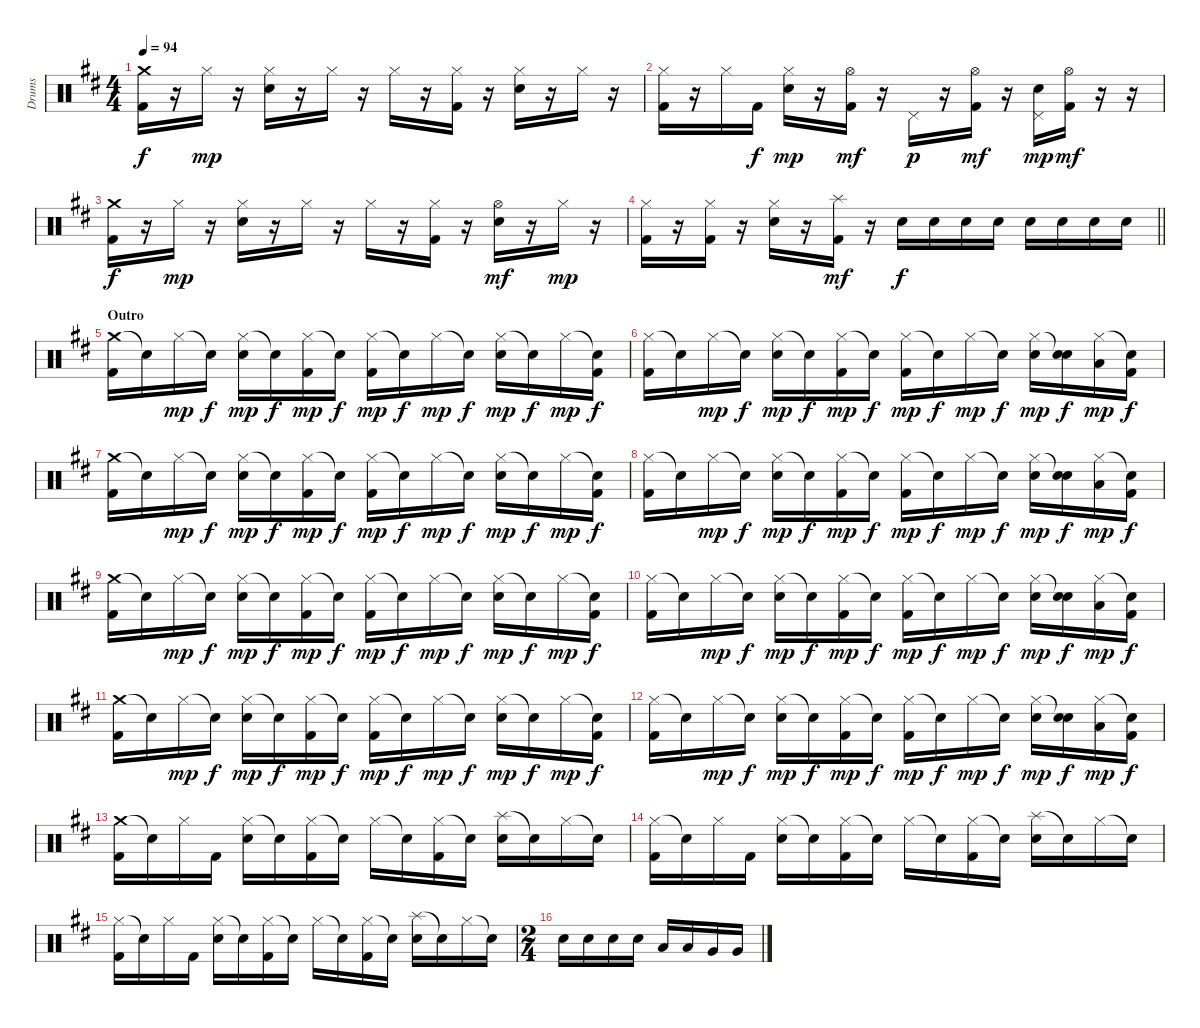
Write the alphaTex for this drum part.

\track ("Drums" "Drums") {instrument percussion}
\staff {score}
\articulation defaults
\ts (4 4)
\tempo 94
\clef neutral
\ks d
("Crash medium (hit)" "Kick (hit) 2").16{dy f} r.16 "Hi-Hat (closed)".16{dy mp} r.16 ("Hi-Hat (closed)" "Snare (hit) 2").16 r.16 "Hi-Hat (closed)".16 r.16 "Hi-Hat (closed)".16 r.16 ("Hi-Hat (closed)" "Kick (hit) 2").16 r.16 ("Hi-Hat (closed)" "Snare (hit) 2").16 r.16 "Hi-Hat (closed)".16 r.16 |
("Hi-Hat (closed)" "Kick (hit) 2").16 r.16 "Hi-Hat (closed)".16 "Kick (hit) 2".16{dy f} ("Hi-Hat (closed)" "Snare (hit) 2").16{dy mp} r.16 ("Hi-Hat (open)" "Kick (hit) 2").16{dy mf} r.16 "Pedal Hi-Hat (hit)".16{dy p} r.16 ("Hi-Hat (open)" "Kick (hit) 2").16{dy mf} r.16 ("Pedal Hi-Hat (hit)" "Snare (hit) 2").16{dy mp} ("Hi-Hat (open)" "Kick (hit) 2").16{dy mf} r.16 r.16 |
("Crash medium (hit)" "Kick (hit) 2").16{dy f} r.16 "Hi-Hat (closed)".16{dy mp} r.16 ("Hi-Hat (closed)" "Snare (hit) 2").16 r.16 "Hi-Hat (closed)".16 r.16 "Hi-Hat (closed)".16 r.16 ("Hi-Hat (closed)" "Kick (hit) 2").16 r.16 ("Hi-Hat (open)" "Snare (hit) 2").16{dy mf} r.16 "Hi-Hat (closed)".16{dy mp} r.16 |
\barLineRight lightlight
("Hi-Hat (closed)" "Kick (hit) 2").16 r.16 ("Hi-Hat (closed)" "Kick (hit) 2").16 r.16 ("Hi-Hat (closed)" "Snare (hit) 2").16 r.16 ("Splash (hit)" "Kick (hit) 2").16{dy mf} r.16 "Snare (hit) 2".16{dy f} "Snare (hit) 2".16 "Snare (hit) 2".16 "Snare (hit) 2".16 "Snare (hit) 2".16 "Snare (hit) 2".16 "Snare (hit) 2".16 "Snare (hit) 2".16 |
\section ("" "Outro")
("Crash medium (hit)" "Kick (hit) 2").16 "Snare (hit)"{t}.16 "Hi-Hat (closed)".16{dy mp} "Snare (hit)"{t}.16{dy f} ("Hi-Hat (closed)" "Snare (hit) 2").16{dy mp} "Snare (hit)"{t}.16{dy f} ("Hi-Hat (closed)" "Kick (hit) 2").16{dy mp} "Snare (hit)"{t}.16{dy f} ("Hi-Hat (closed)" "Kick (hit) 2").16{dy mp} "Snare (hit)"{t}.16{dy f} "Hi-Hat (closed)".16{dy mp} "Snare (hit)"{t}.16{dy f} ("Hi-Hat (closed)" "Snare (hit) 2").16{dy mp} "Snare (hit)"{t}.16{dy f} "Hi-Hat (closed)".16{dy mp} ("Snare (hit)"{t} "Kick (hit) 2").16{dy f} |
("Hi-Hat (closed)" "Kick (hit) 2").16 "Snare (hit)"{t}.16 "Hi-Hat (closed)".16{dy mp} "Snare (hit)"{t}.16{dy f} ("Hi-Hat (closed)" "Snare (hit) 2").16{dy mp} "Snare (hit)"{t}.16{dy f} ("Hi-Hat (closed)" "Kick (hit) 2").16{dy mp} "Snare (hit)"{t}.16{dy f} ("Hi-Hat (closed)" "Kick (hit) 2").16{dy mp} "Snare (hit)"{t}.16{dy f} "Hi-Hat (closed)".16{dy mp} "Snare (hit)"{t}.16{dy f} ("Hi-Hat (closed)" "Snare (hit) 2").16{dy mp} ("Snare (hit)"{t} "Snare (hit) 2").16{dy f} ("Hi-Hat (closed)" "Low Floor Tom (hit)").16{dy mp} ("Snare (hit)"{t} "Kick (hit) 2").16{dy f} |
("Crash medium (hit)" "Kick (hit) 2").16 "Snare (hit)"{t}.16 "Hi-Hat (closed)".16{dy mp} "Snare (hit)"{t}.16{dy f} ("Hi-Hat (closed)" "Snare (hit) 2").16{dy mp} "Snare (hit)"{t}.16{dy f} ("Hi-Hat (closed)" "Kick (hit) 2").16{dy mp} "Snare (hit)"{t}.16{dy f} ("Hi-Hat (closed)" "Kick (hit) 2").16{dy mp} "Snare (hit)"{t}.16{dy f} "Hi-Hat (closed)".16{dy mp} "Snare (hit)"{t}.16{dy f} ("Hi-Hat (closed)" "Snare (hit) 2").16{dy mp} "Snare (hit)"{t}.16{dy f} "Hi-Hat (closed)".16{dy mp} ("Snare (hit)"{t} "Kick (hit) 2").16{dy f} |
("Hi-Hat (closed)" "Kick (hit) 2").16 "Snare (hit)"{t}.16 "Hi-Hat (closed)".16{dy mp} "Snare (hit)"{t}.16{dy f} ("Hi-Hat (closed)" "Snare (hit) 2").16{dy mp} "Snare (hit)"{t}.16{dy f} ("Hi-Hat (closed)" "Kick (hit) 2").16{dy mp} "Snare (hit)"{t}.16{dy f} ("Hi-Hat (closed)" "Kick (hit) 2").16{dy mp} "Snare (hit)"{t}.16{dy f} "Hi-Hat (closed)".16{dy mp} "Snare (hit)"{t}.16{dy f} ("Hi-Hat (closed)" "Snare (hit) 2").16{dy mp} ("Snare (hit)"{t} "Snare (hit) 2").16{dy f} ("Hi-Hat (closed)" "Low Floor Tom (hit)").16{dy mp} ("Snare (hit)"{t} "Kick (hit) 2").16{dy f} |
("Crash medium (hit)" "Kick (hit) 2").16 "Snare (hit)"{t}.16 "Hi-Hat (closed)".16{dy mp} "Snare (hit)"{t}.16{dy f} ("Hi-Hat (closed)" "Snare (hit) 2").16{dy mp} "Snare (hit)"{t}.16{dy f} ("Hi-Hat (closed)" "Kick (hit) 2").16{dy mp} "Snare (hit)"{t}.16{dy f} ("Hi-Hat (closed)" "Kick (hit) 2").16{dy mp} "Snare (hit)"{t}.16{dy f} "Hi-Hat (closed)".16{dy mp} "Snare (hit)"{t}.16{dy f} ("Hi-Hat (closed)" "Snare (hit) 2").16{dy mp} "Snare (hit)"{t}.16{dy f} "Hi-Hat (closed)".16{dy mp} ("Snare (hit)"{t} "Kick (hit) 2").16{dy f} |
("Hi-Hat (closed)" "Kick (hit) 2").16 "Snare (hit)"{t}.16 "Hi-Hat (closed)".16{dy mp} "Snare (hit)"{t}.16{dy f} ("Hi-Hat (closed)" "Snare (hit) 2").16{dy mp} "Snare (hit)"{t}.16{dy f} ("Hi-Hat (closed)" "Kick (hit) 2").16{dy mp} "Snare (hit)"{t}.16{dy f} ("Hi-Hat (closed)" "Kick (hit) 2").16{dy mp} "Snare (hit)"{t}.16{dy f} "Hi-Hat (closed)".16{dy mp} "Snare (hit)"{t}.16{dy f} ("Hi-Hat (closed)" "Snare (hit) 2").16{dy mp} ("Snare (hit)"{t} "Snare (hit) 2").16{dy f} ("Hi-Hat (closed)" "Low Floor Tom (hit)").16{dy mp} ("Snare (hit)"{t} "Kick (hit) 2").16{dy f} |
("Crash medium (hit)" "Kick (hit) 2").16 "Snare (hit)"{t}.16 "Hi-Hat (closed)".16{dy mp} "Snare (hit)"{t}.16{dy f} ("Hi-Hat (closed)" "Snare (hit) 2").16{dy mp} "Snare (hit)"{t}.16{dy f} ("Hi-Hat (closed)" "Kick (hit) 2").16{dy mp} "Snare (hit)"{t}.16{dy f} ("Hi-Hat (closed)" "Kick (hit) 2").16{dy mp} "Snare (hit)"{t}.16{dy f} "Hi-Hat (closed)".16{dy mp} "Snare (hit)"{t}.16{dy f} ("Hi-Hat (closed)" "Snare (hit) 2").16{dy mp} "Snare (hit)"{t}.16{dy f} "Hi-Hat (closed)".16{dy mp} ("Snare (hit)"{t} "Kick (hit) 2").16{dy f} |
("Hi-Hat (closed)" "Kick (hit) 2").16 "Snare (hit)"{t}.16 "Hi-Hat (closed)".16{dy mp} "Snare (hit)"{t}.16{dy f} ("Hi-Hat (closed)" "Snare (hit) 2").16{dy mp} "Snare (hit)"{t}.16{dy f} ("Hi-Hat (closed)" "Kick (hit) 2").16{dy mp} "Snare (hit)"{t}.16{dy f} ("Hi-Hat (closed)" "Kick (hit) 2").16{dy mp} "Snare (hit)"{t}.16{dy f} "Hi-Hat (closed)".16{dy mp} "Snare (hit)"{t}.16{dy f} ("Hi-Hat (closed)" "Snare (hit) 2").16{dy mp} ("Snare (hit)"{t} "Snare (hit) 2").16{dy f} ("Hi-Hat (closed)" "Low Floor Tom (hit)").16{dy mp} ("Snare (hit)"{t} "Kick (hit) 2").16{dy f} |
("Crash medium (hit)" "Kick (hit) 2").16 "Snare (hit)"{t}.16 "Hi-Hat (closed)".16 "Kick (hit) 2".16 ("Hi-Hat (closed)" "Snare (hit) 2").16 "Snare (hit)"{t}.16 ("Hi-Hat (closed)" "Kick (hit) 2").16 "Snare (hit)"{t}.16 "Hi-Hat (closed)".16 "Snare (hit)"{t}.16 ("Hi-Hat (closed)" "Kick (hit) 2").16 "Snare (hit)"{t}.16 ("Splash (hit)" "Snare (hit) 2").16 "Snare (hit)"{t}.16 "Hi-Hat (closed)".16 "Snare (hit)"{t}.16 |
("Hi-Hat (closed)" "Kick (hit) 2").16 "Snare (hit)"{t}.16 "Hi-Hat (closed)".16 "Kick (hit) 2".16 ("Hi-Hat (closed)" "Snare (hit) 2").16 "Snare (hit)"{t}.16 ("Hi-Hat (closed)" "Kick (hit) 2").16 "Snare (hit)"{t}.16 "Hi-Hat (closed)".16 "Snare (hit)"{t}.16 ("Hi-Hat (closed)" "Kick (hit) 2").16 "Snare (hit)"{t}.16 ("Splash (hit)" "Snare (hit) 2").16 "Snare (hit)"{t}.16 "Hi-Hat (closed)".16 "Snare (hit)"{t}.16 |
("Hi-Hat (closed)" "Kick (hit) 2").16 "Snare (hit)"{t}.16 "Hi-Hat (closed)".16 "Kick (hit) 2".16 ("Hi-Hat (closed)" "Snare (hit) 2").16 "Snare (hit)"{t}.16 ("Hi-Hat (closed)" "Kick (hit) 2").16 "Snare (hit)"{t}.16 "Hi-Hat (closed)".16 "Snare (hit)"{t}.16 ("Hi-Hat (closed)" "Kick (hit) 2").16 "Snare (hit)"{t}.16 ("Splash (hit)" "Snare (hit) 2").16 "Snare (hit)"{t}.16 "Hi-Hat (closed)".16 "Snare (hit)"{t}.16 |
\ts (2 4)
"Snare (hit) 2".16 "Snare (hit) 2".16 "Snare (hit) 2".16 "Snare (hit) 2".16 "Low Tom (hit)".16 "Low Tom (hit)".16 "Very Low Tom (hit)".16 "Very Low Tom (hit)".16
